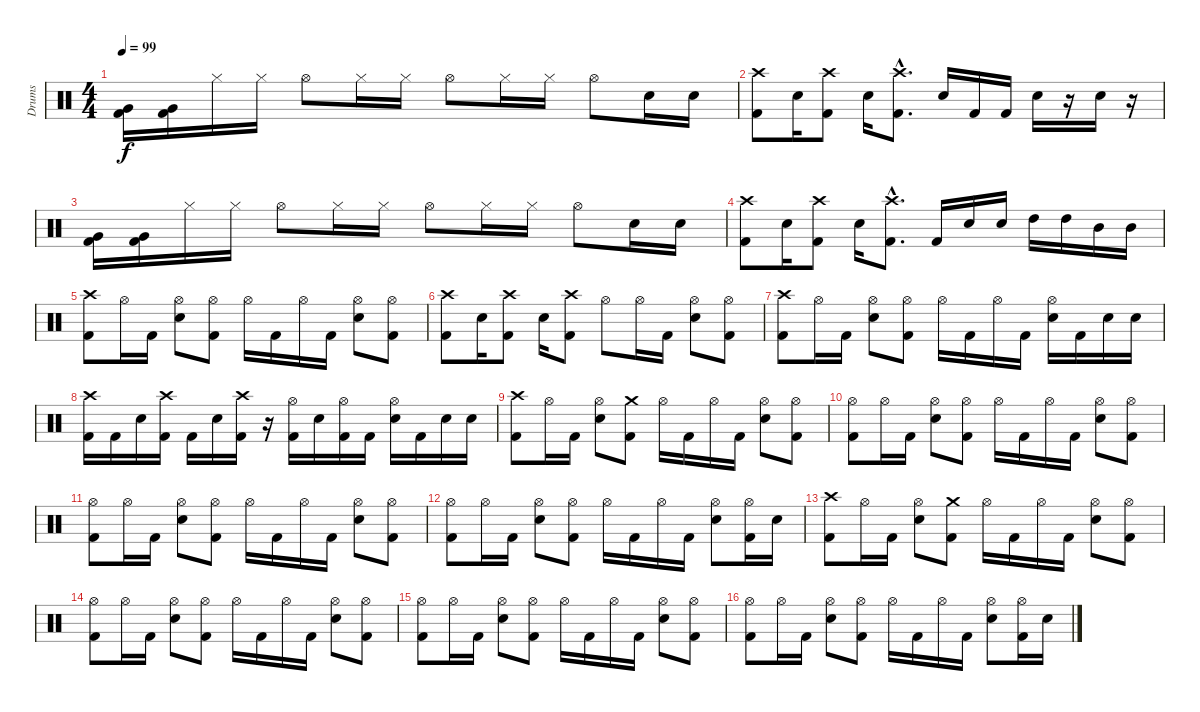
\track ("Drums" "Drums") {instrument percussion}
\staff {score}
\articulation defaults
\ts (4 4)
\tempo 99
\clef neutral
\ks c
("Very Low Tom (hit)" "Kick (hit) 2").16{dy f} ("Very Low Tom (hit)" "Kick (hit) 2").16 "Hi-Hat (closed)".16 "Hi-Hat (closed)".16 "Hi-Hat (open)".8 "Hi-Hat (closed)".16 "Hi-Hat (closed)".16 "Hi-Hat (open)".8 "Hi-Hat (closed)".16 "Hi-Hat (closed)".16 "Hi-Hat (open)".8 "Snare (hit) 2".16 "Snare (hit) 2".16 |
("Crash high (hit)" "Kick (hit) 2").8 "Snare (hit) 2".16 ("Crash high (hit)" "Kick (hit) 2").8 "Snare (hit) 2".16 ("Crash high (hit)"{hac} "Kick (hit) 2"{hac}).8{d} "Snare (hit) 2".16 "Kick (hit) 2".16 "Kick (hit) 2".16 "Snare (hit) 2".16 r.16 "Snare (hit) 2".16 r.16 |
("Very Low Tom (hit)" "Kick (hit) 2").16 ("Very Low Tom (hit)" "Kick (hit) 2").16 "Hi-Hat (closed)".16 "Hi-Hat (closed)".16 "Hi-Hat (open)".8 "Hi-Hat (closed)".16 "Hi-Hat (closed)".16 "Hi-Hat (open)".8 "Hi-Hat (closed)".16 "Hi-Hat (closed)".16 "Hi-Hat (open)".8 "Snare (hit) 2".16 "Snare (hit) 2".16 |
("Crash high (hit)" "Kick (hit) 2").8 "Snare (hit) 2".16 ("Crash high (hit)" "Kick (hit) 2").8 "Snare (hit) 2".16 ("Crash high (hit)"{hac} "Kick (hit) 2"{hac}).8{d} "Kick (hit) 2".16 "Snare (hit) 2".16 "Snare (hit) 2".16 "High Tom (hit)".16 "High Tom (hit)".16 "Mid Tom (hit)".16 "Mid Tom (hit)".16 |
("Crash high (hit)" "Kick (hit) 2").8 "Hi-Hat (open)".16 "Kick (hit) 2".16 ("Hi-Hat (open)" "Snare (hit) 2").8 ("Hi-Hat (open)" "Kick (hit) 2").8 "Hi-Hat (open)".16 "Kick (hit) 2".16 "Hi-Hat (open)".16 "Kick (hit) 2".16 ("Hi-Hat (open)" "Snare (hit) 2").8 ("Hi-Hat (open)" "Kick (hit) 2").8 |
("Crash high (hit)" "Kick (hit) 2").8 "Snare (hit) 2".16 ("Crash high (hit)" "Kick (hit) 2").8 "Snare (hit) 2".16 ("Crash high (hit)" "Kick (hit) 2").8 "Hi-Hat (open)".8 "Hi-Hat (open)".16 "Kick (hit) 2".16 ("Hi-Hat (open)" "Snare (hit) 2").8 ("Hi-Hat (open)" "Kick (hit) 2").8 |
("Crash high (hit)" "Kick (hit) 2").8 "Hi-Hat (open)".16 "Kick (hit) 2".16 ("Hi-Hat (open)" "Snare (hit) 2").8 ("Hi-Hat (open)" "Kick (hit) 2").8 "Hi-Hat (open)".16 "Kick (hit) 2".16 "Hi-Hat (open)".16 "Kick (hit) 2".16 ("Hi-Hat (open)" "Snare (hit) 2").16 "Kick (hit) 2".16 "Snare (hit) 2".16 "Snare (hit) 2".16 |
("Crash high (hit)" "Kick (hit) 2").16 "Kick (hit) 2".16 "Snare (hit) 2".16 ("Crash high (hit)" "Kick (hit) 2").16 "Kick (hit) 2".16 "Snare (hit) 2".16 ("Crash high (hit)" "Kick (hit) 2").16 r.16 ("Hi-Hat (open)" "Kick (hit) 2").16 "Snare (hit) 2".16 ("Hi-Hat (open)" "Kick (hit) 2").16 "Kick (hit) 2".16 ("Hi-Hat (open)" "Snare (hit) 2").16 "Kick (hit) 2".16 "Snare (hit) 2".16 "Snare (hit) 2".16 |
("Crash high (hit)" "Kick (hit) 2").8 "Hi-Hat (open)".16 "Kick (hit) 2".16 ("Hi-Hat (open)" "Snare (hit) 2").8 ("Crash medium (hit)" "Kick (hit) 2").8 "Hi-Hat (open)".16 "Kick (hit) 2".16 "Hi-Hat (open)".16 "Kick (hit) 2".16 ("Hi-Hat (open)" "Snare (hit) 2").8 ("Hi-Hat (open)" "Kick (hit) 2").8 |
("Hi-Hat (open)" "Kick (hit) 2").8 "Hi-Hat (open)".16 "Kick (hit) 2".16 ("Hi-Hat (open)" "Snare (hit) 2").8 ("Hi-Hat (open)" "Kick (hit) 2").8 "Hi-Hat (open)".16 "Kick (hit) 2".16 "Hi-Hat (open)".16 "Kick (hit) 2".16 ("Hi-Hat (open)" "Snare (hit) 2").8 ("Hi-Hat (open)" "Kick (hit) 2").8 |
("Hi-Hat (open)" "Kick (hit) 2").8 "Hi-Hat (open)".16 "Kick (hit) 2".16 ("Hi-Hat (open)" "Snare (hit) 2").8 ("Hi-Hat (open)" "Kick (hit) 2").8 "Hi-Hat (open)".16 "Kick (hit) 2".16 "Hi-Hat (open)".16 "Kick (hit) 2".16 ("Hi-Hat (open)" "Snare (hit) 2").8 ("Hi-Hat (open)" "Kick (hit) 2").8 |
("Hi-Hat (open)" "Kick (hit) 2").8 "Hi-Hat (open)".16 "Kick (hit) 2".16 ("Hi-Hat (open)" "Snare (hit) 2").8 ("Hi-Hat (open)" "Kick (hit) 2").8 "Hi-Hat (open)".16 "Kick (hit) 2".16 "Hi-Hat (open)".16 "Kick (hit) 2".16 ("Hi-Hat (open)" "Snare (hit) 2").8 ("Hi-Hat (open)" "Kick (hit) 2").16 "Snare (hit) 2".16 |
("Crash high (hit)" "Kick (hit) 2").8 "Hi-Hat (open)".16 "Kick (hit) 2".16 ("Hi-Hat (open)" "Snare (hit) 2").8 ("Crash medium (hit)" "Kick (hit) 2").8 "Hi-Hat (open)".16 "Kick (hit) 2".16 "Hi-Hat (open)".16 "Kick (hit) 2".16 ("Hi-Hat (open)" "Snare (hit) 2").8 ("Hi-Hat (open)" "Kick (hit) 2").8 |
("Hi-Hat (open)" "Kick (hit) 2").8 "Hi-Hat (open)".16 "Kick (hit) 2".16 ("Hi-Hat (open)" "Snare (hit) 2").8 ("Hi-Hat (open)" "Kick (hit) 2").8 "Hi-Hat (open)".16 "Kick (hit) 2".16 "Hi-Hat (open)".16 "Kick (hit) 2".16 ("Hi-Hat (open)" "Snare (hit) 2").8 ("Hi-Hat (open)" "Kick (hit) 2").8 |
("Hi-Hat (open)" "Kick (hit) 2").8 "Hi-Hat (open)".16 "Kick (hit) 2".16 ("Hi-Hat (open)" "Snare (hit) 2").8 ("Hi-Hat (open)" "Kick (hit) 2").8 "Hi-Hat (open)".16 "Kick (hit) 2".16 "Hi-Hat (open)".16 "Kick (hit) 2".16 ("Hi-Hat (open)" "Snare (hit) 2").8 ("Hi-Hat (open)" "Kick (hit) 2").8 |
("Hi-Hat (open)" "Kick (hit) 2").8 "Hi-Hat (open)".16 "Kick (hit) 2".16 ("Hi-Hat (open)" "Snare (hit) 2").8 ("Hi-Hat (open)" "Kick (hit) 2").8 "Hi-Hat (open)".16 "Kick (hit) 2".16 "Hi-Hat (open)".16 "Kick (hit) 2".16 ("Hi-Hat (open)" "Snare (hit) 2").8 ("Hi-Hat (open)" "Kick (hit) 2").16 "Snare (hit) 2".16
